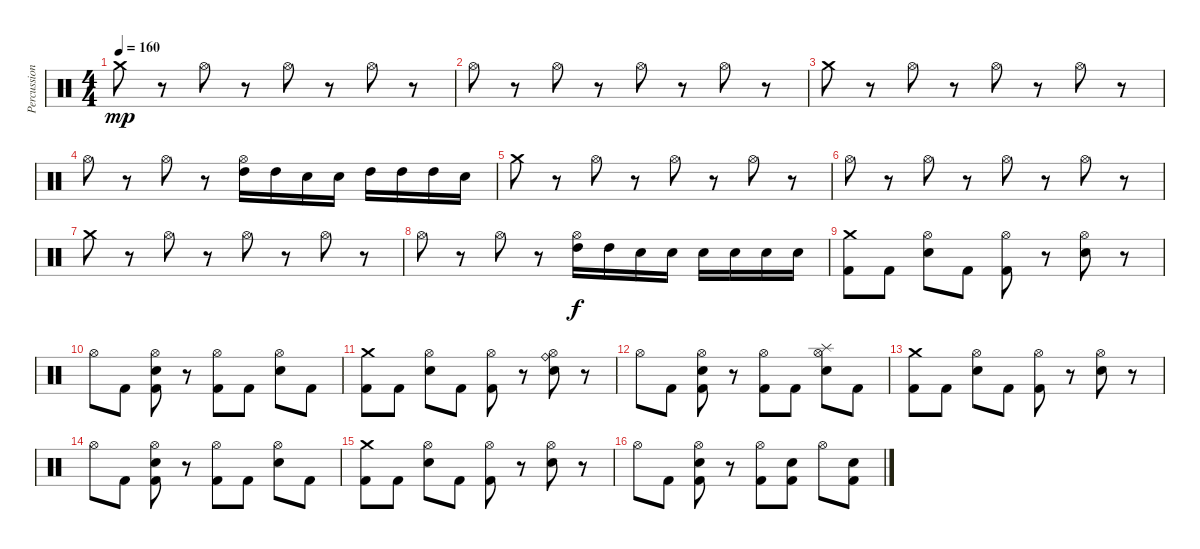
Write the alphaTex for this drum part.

\track ("Percussion" "Percussion") {instrument percussion}
\staff {score}
\articulation defaults
\ts (4 4)
\tempo 160
\clef neutral
\ks c "Crash medium (hit)".8{dy mp}
r.8 "Hi-Hat (open)".8 r.8 "Hi-Hat (open)".8 r.8 "Hi-Hat (open)".8 r.8 |
"Hi-Hat (open)".8 r.8 "Hi-Hat (open)".8 r.8 "Hi-Hat (open)".8 r.8 "Hi-Hat (open)".8 r.8 |
"Crash medium (hit)".8 r.8 "Hi-Hat (open)".8 r.8 "Hi-Hat (open)".8 r.8 "Hi-Hat (open)".8 r.8 |
"Hi-Hat (open)".8 r.8 "Hi-Hat (open)".8 r.8 ("Hi-Hat (open)" "High Tom (hit)").16 "High Tom (hit)".16 "Electric Snare (hit)".16 "Electric Snare (hit)".16 "High Tom (hit)".16 "High Tom (hit)".16 "High Tom (hit)".16 "Electric Snare (hit)".16 |
"Crash medium (hit)".8 r.8 "Hi-Hat (open)".8 r.8 "Hi-Hat (open)".8 r.8 "Hi-Hat (open)".8 r.8 |
"Hi-Hat (open)".8 r.8 "Hi-Hat (open)".8 r.8 "Hi-Hat (open)".8 r.8 "Hi-Hat (open)".8 r.8 |
"Crash medium (hit)".8 r.8 "Hi-Hat (open)".8 r.8 "Hi-Hat (open)".8 r.8 "Hi-Hat (open)".8 r.8 |
"Hi-Hat (open)".8 r.8 "Hi-Hat (open)".8 r.8 ("Hi-Hat (open)" "High Tom (hit)").16{dy f} "High Tom (hit)".16 "Electric Snare (hit)".16 "Electric Snare (hit)".16 "Electric Snare (hit)".16 "Electric Snare (hit)".16 "Electric Snare (hit)".16 "Electric Snare (hit)".16 |
("Crash medium (hit)" "Kick (hit) 2").8 "Kick (hit) 2".8 ("Hi-Hat (open)" "Electric Snare (hit)").8 "Kick (hit) 2".8 ("Hi-Hat (open)" "Kick (hit) 2").8 r.8 ("Hi-Hat (open)" "Electric Snare (hit)").8 r.8 |
"Hi-Hat (open)".8 "Kick (hit) 2".8 ("Hi-Hat (open)" "Electric Snare (hit)" "Kick (hit) 2").8 r.8 ("Hi-Hat (open)" "Kick (hit) 2").8 "Kick (hit) 2".8 ("Hi-Hat (open)" "Electric Snare (hit)").8 "Kick (hit) 2".8 |
("Crash medium (hit)" "Kick (hit) 2").8 "Kick (hit) 2".8 ("Hi-Hat (open)" "Electric Snare (hit)").8 "Kick (hit) 2".8 ("Hi-Hat (open)" "Kick (hit) 2").8 r.8 ("Ride (bell)" "Hi-Hat (open)" "Electric Snare (hit)").8 r.8 |
"Hi-Hat (open)".8 "Kick (hit) 2".8 ("Hi-Hat (open)" "Electric Snare (hit)" "Kick (hit) 2").8 r.8 ("Hi-Hat (open)" "Kick (hit) 2").8 "Kick (hit) 2".8 ("Splash (hit)" "Hi-Hat (open)" "Electric Snare (hit)").8 "Kick (hit) 2".8 |
("Crash medium (hit)" "Kick (hit) 2").8 "Kick (hit) 2".8 ("Hi-Hat (open)" "Electric Snare (hit)").8 "Kick (hit) 2".8 ("Hi-Hat (open)" "Kick (hit) 2").8 r.8 ("Hi-Hat (open)" "Electric Snare (hit)").8 r.8 |
"Hi-Hat (open)".8 "Kick (hit) 2".8 ("Hi-Hat (open)" "Electric Snare (hit)" "Kick (hit) 2").8 r.8 ("Hi-Hat (open)" "Kick (hit) 2").8 "Kick (hit) 2".8 ("Hi-Hat (open)" "Electric Snare (hit)").8 "Kick (hit) 2".8 |
("Crash medium (hit)" "Kick (hit) 2").8 "Kick (hit) 2".8 ("Hi-Hat (open)" "Electric Snare (hit)").8 "Kick (hit) 2".8 ("Hi-Hat (open)" "Kick (hit) 2").8 r.8 ("Hi-Hat (open)" "Electric Snare (hit)").8 r.8 |
"Hi-Hat (open)".8 "Kick (hit) 2".8 ("Hi-Hat (open)" "Electric Snare (hit)" "Kick (hit) 2").8 r.8 ("Hi-Hat (open)" "Kick (hit) 2").8 ("Electric Snare (hit)" "Kick (hit) 2").8 "Hi-Hat (open)".8 ("Electric Snare (hit)" "Kick (hit) 2").8
